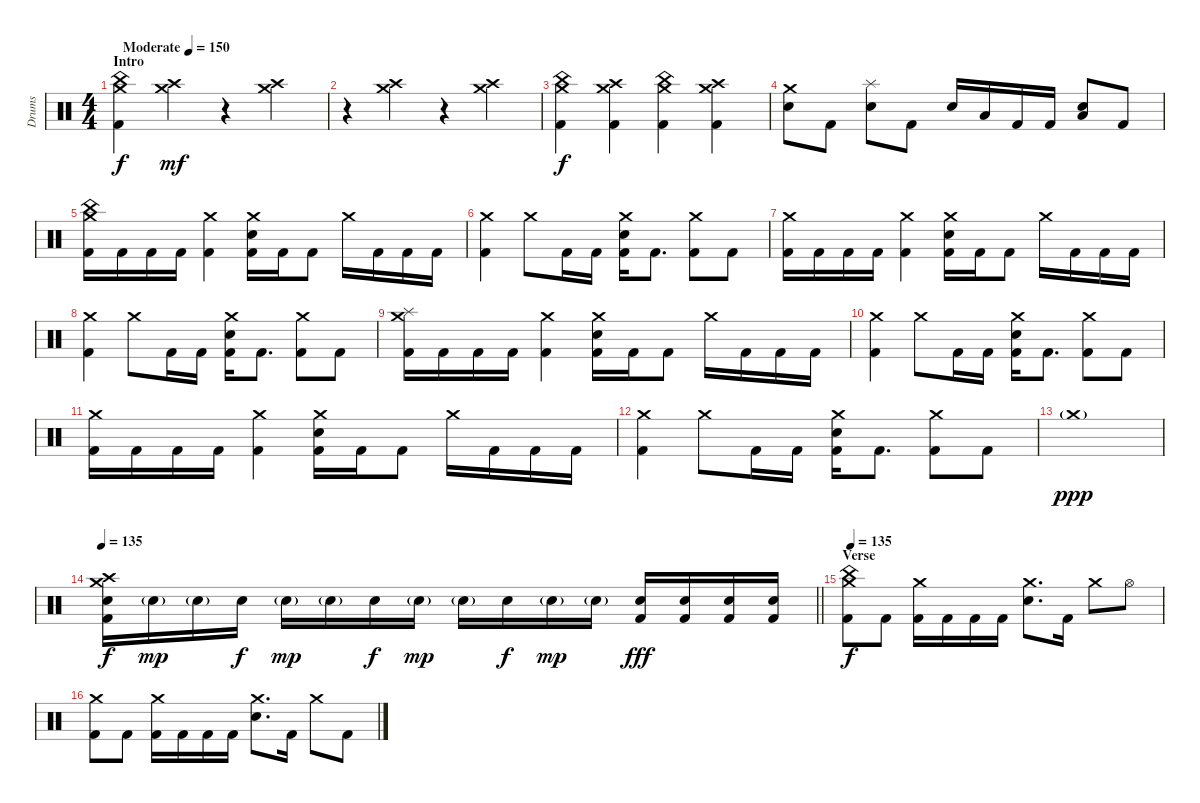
\track ("Drums" "Drums") {instrument percussion}
\staff {score}
\articulation defaults
\ts (4 4)
\section ("" "Intro")
\tempo (150 "Moderate")
\clef neutral
\ks c
("Crash medium (hit)" "China (hit)" "Kick (hit) 2").4{dy f} ("Crash medium (hit)" "Crash high (hit)").4{dy mf} r.4 ("Crash medium (hit)" "Crash high (hit)").4 |
r.4 ("Crash medium (hit)" "Crash high (hit)").4 r.4 ("Crash medium (hit)" "Crash high (hit)").4 |
("Crash medium (hit)" "China (hit)" "Kick (hit) 2").4{dy f} ("Crash high (hit)" "Crash medium (hit)" "Kick (hit) 2").4 ("Crash medium (hit)" "China (hit)" "Kick (hit) 2").4 ("Crash high (hit)" "Crash medium (hit)" "Kick (hit) 2").4 |
("Crash medium (hit)" "Electric Snare (hit)").8 "Kick (hit) 2".8 ("Splash (hit)" "Electric Snare (hit)").8 "Kick (hit) 2".8 "Electric Snare (hit)".16 "Low Tom (hit)".16 "Kick (hit) 2".16 "Kick (hit) 2".16 ("Low Floor Tom (hit)" "Electric Snare (hit)").8 "Kick (hit) 2".8 |
("Crash medium (hit)" "China (hit)" "Kick (hit) 2").16 "Kick (hit) 2".16 "Kick (hit) 2".16 "Kick (hit) 2".16 ("Crash medium (hit)" "Kick (hit) 2").4 ("Crash medium (hit)" "Electric Snare (hit)" "Kick (hit) 2").16 "Kick (hit) 2".16 "Kick (hit) 2".8 "Crash medium (hit)".16 "Kick (hit) 2".16 "Kick (hit) 2".16 "Kick (hit) 2".16 |
("Crash medium (hit)" "Kick (hit) 2").4 "Crash medium (hit)".8 "Kick (hit) 2".16 "Kick (hit) 2".16 ("Crash medium (hit)" "Electric Snare (hit)" "Kick (hit) 2").16 "Kick (hit) 2".8{d} ("Crash medium (hit)" "Kick (hit) 2").8 "Kick (hit) 2".8 |
("Crash medium (hit)" "Kick (hit) 2").16 "Kick (hit) 2".16 "Kick (hit) 2".16 "Kick (hit) 2".16 ("Crash medium (hit)" "Kick (hit) 2").4 ("Crash medium (hit)" "Electric Snare (hit)" "Kick (hit) 2").16 "Kick (hit) 2".16 "Kick (hit) 2".8 "Crash medium (hit)".16 "Kick (hit) 2".16 "Kick (hit) 2".16 "Kick (hit) 2".16 |
("Crash medium (hit)" "Kick (hit) 2").4 "Crash medium (hit)".8 "Kick (hit) 2".16 "Kick (hit) 2".16 ("Crash medium (hit)" "Electric Snare (hit)" "Kick (hit) 2").16 "Kick (hit) 2".8{d} ("Crash medium (hit)" "Kick (hit) 2").8 "Kick (hit) 2".8 |
("Crash medium (hit)" "Splash (hit)" "Kick (hit) 2").16 "Kick (hit) 2".16 "Kick (hit) 2".16 "Kick (hit) 2".16 ("Crash medium (hit)" "Kick (hit) 2").4 ("Crash medium (hit)" "Electric Snare (hit)" "Kick (hit) 2").16 "Kick (hit) 2".16 "Kick (hit) 2".8 "Crash medium (hit)".16 "Kick (hit) 2".16 "Kick (hit) 2".16 "Kick (hit) 2".16 |
("Crash medium (hit)" "Kick (hit) 2").4 "Crash medium (hit)".8 "Kick (hit) 2".16 "Kick (hit) 2".16 ("Crash medium (hit)" "Electric Snare (hit)" "Kick (hit) 2").16 "Kick (hit) 2".8{d} ("Crash medium (hit)" "Kick (hit) 2").8 "Kick (hit) 2".8 |
("Crash medium (hit)" "Kick (hit) 2").16 "Kick (hit) 2".16 "Kick (hit) 2".16 "Kick (hit) 2".16 ("Crash medium (hit)" "Kick (hit) 2").4 ("Crash medium (hit)" "Electric Snare (hit)" "Kick (hit) 2").16 "Kick (hit) 2".16 "Kick (hit) 2".8 "Crash medium (hit)".16 "Kick (hit) 2".16 "Kick (hit) 2".16 "Kick (hit) 2".16 |
("Crash medium (hit)" "Kick (hit) 2").4 "Crash medium (hit)".8 "Kick (hit) 2".16 "Kick (hit) 2".16 ("Crash medium (hit)" "Electric Snare (hit)" "Kick (hit) 2").16 "Kick (hit) 2".8{d} ("Crash medium (hit)" "Kick (hit) 2").8 "Kick (hit) 2".8 |
"Crash medium (hit)"{g}.1{dy ppp} |
\tempo 135
\barLineRight lightlight
("Crash high (hit)" "Crash medium (hit)" "Electric Snare (hit)" "Kick (hit) 2").16{dy f} "Electric Snare (hit)"{g}.16{dy mp} "Electric Snare (hit)"{g}.16 "Electric Snare (hit)".16{dy f} "Electric Snare (hit)"{g}.16{dy mp} "Electric Snare (hit)"{g}.16 "Electric Snare (hit)".16{dy f} "Electric Snare (hit)"{g}.16{dy mp} "Electric Snare (hit)"{g}.16 "Electric Snare (hit)".16{dy f} "Electric Snare (hit)"{g}.16{dy mp} "Electric Snare (hit)"{g}.16 ("Electric Snare (hit)" "Kick (hit) 2").16{dy fff} ("Electric Snare (hit)" "Kick (hit) 2").16 ("Electric Snare (hit)" "Kick (hit) 2").16 ("Electric Snare (hit)" "Kick (hit) 2").16 |
\section ("" "Verse")
\tempo 135
("Crash medium (hit)" "China (hit)" "Kick (hit) 2").8{dy f} "Kick (hit) 2".8 ("Crash medium (hit)" "Kick (hit) 2").16 "Kick (hit) 2".16 "Kick (hit) 2".16 "Kick (hit) 2".16 ("Crash medium (hit)" "Electric Snare (hit)").8{d} "Kick (hit) 2".16 "Crash medium (hit)".8 "Hi-Hat (open)".8 |
("Crash medium (hit)" "Kick (hit) 2").8 "Kick (hit) 2".8 ("Crash medium (hit)" "Kick (hit) 2").16 "Kick (hit) 2".16 "Kick (hit) 2".16 "Kick (hit) 2".16 ("Crash medium (hit)" "Electric Snare (hit)").8{d} "Kick (hit) 2".16 "Crash medium (hit)".8 "Kick (hit) 2".8
